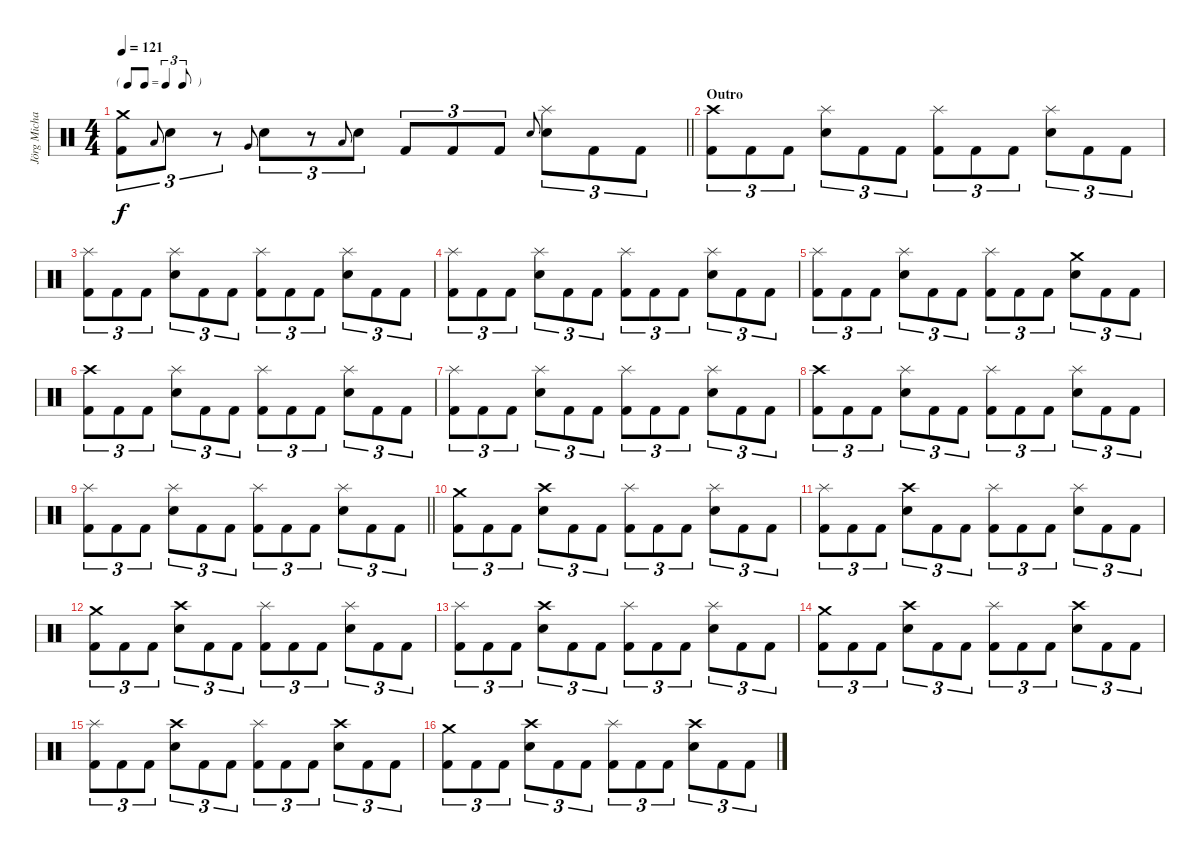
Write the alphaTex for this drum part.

\track ("Jörg Michael" "Jörg Micha") {instrument percussion}
\staff {score}
\articulation defaults
\ts (4 4)
\tf triplet8th
\tempo 121
\clef neutral
\barLineRight lightlight
\ks c
("Crash medium (hit)" "Kick (hit) 2").8{tu (3 2) dy f} "Low Tom (hit)".8{gr onbeat} "Snare (hit) 2".8{tu (3 2)} r.8{tu (3 2)} "Very Low Tom (hit)".8{gr onbeat} "Snare (hit) 2".8{tu (3 2)} r.8{tu (3 2)} "Low Floor Tom (hit)".8{gr onbeat} "Snare (hit) 2".8{tu (3 2)} "Kick (hit) 2".8{tu (3 2)} "Kick (hit) 2".8{tu (3 2)} "Kick (hit) 2".8{tu (3 2)} "Snare (hit) 2".8{gr onbeat} ("Splash (hit)" "Snare (hit) 2").8{tu (3 2)} "Kick (hit) 2".8{tu (3 2)} "Kick (hit) 2".8{tu (3 2)} |
\section ("" "Outro")
("Crash high (hit)" "Kick (hit) 2").8{tu (3 2)} "Kick (hit) 2".8{tu (3 2)} "Kick (hit) 2".8{tu (3 2)} ("Splash (hit)" "Snare (hit) 2").8{tu (3 2)} "Kick (hit) 2".8{tu (3 2)} "Kick (hit) 2".8{tu (3 2)} ("Splash (hit)" "Kick (hit) 2").8{tu (3 2)} "Kick (hit) 2".8{tu (3 2)} "Kick (hit) 2".8{tu (3 2)} ("Splash (hit)" "Snare (hit) 2").8{tu (3 2)} "Kick (hit) 2".8{tu (3 2)} "Kick (hit) 2".8{tu (3 2)} |
("Splash (hit)" "Kick (hit) 2").8{tu (3 2)} "Kick (hit) 2".8{tu (3 2)} "Kick (hit) 2".8{tu (3 2)} ("Splash (hit)" "Snare (hit) 2").8{tu (3 2)} "Kick (hit) 2".8{tu (3 2)} "Kick (hit) 2".8{tu (3 2)} ("Splash (hit)" "Kick (hit) 2").8{tu (3 2)} "Kick (hit) 2".8{tu (3 2)} "Kick (hit) 2".8{tu (3 2)} ("Splash (hit)" "Snare (hit) 2").8{tu (3 2)} "Kick (hit) 2".8{tu (3 2)} "Kick (hit) 2".8{tu (3 2)} |
("Splash (hit)" "Kick (hit) 2").8{tu (3 2)} "Kick (hit) 2".8{tu (3 2)} "Kick (hit) 2".8{tu (3 2)} ("Splash (hit)" "Snare (hit) 2").8{tu (3 2)} "Kick (hit) 2".8{tu (3 2)} "Kick (hit) 2".8{tu (3 2)} ("Splash (hit)" "Kick (hit) 2").8{tu (3 2)} "Kick (hit) 2".8{tu (3 2)} "Kick (hit) 2".8{tu (3 2)} ("Splash (hit)" "Snare (hit) 2").8{tu (3 2)} "Kick (hit) 2".8{tu (3 2)} "Kick (hit) 2".8{tu (3 2)} |
("Splash (hit)" "Kick (hit) 2").8{tu (3 2)} "Kick (hit) 2".8{tu (3 2)} "Kick (hit) 2".8{tu (3 2)} ("Splash (hit)" "Snare (hit) 2").8{tu (3 2)} "Kick (hit) 2".8{tu (3 2)} "Kick (hit) 2".8{tu (3 2)} ("Splash (hit)" "Kick (hit) 2").8{tu (3 2)} "Kick (hit) 2".8{tu (3 2)} "Kick (hit) 2".8{tu (3 2)} ("Crash medium (hit)" "Snare (hit) 2").8{tu (3 2)} "Kick (hit) 2".8{tu (3 2)} "Kick (hit) 2".8{tu (3 2)} |
("Crash high (hit)" "Kick (hit) 2").8{tu (3 2)} "Kick (hit) 2".8{tu (3 2)} "Kick (hit) 2".8{tu (3 2)} ("Splash (hit)" "Snare (hit) 2").8{tu (3 2)} "Kick (hit) 2".8{tu (3 2)} "Kick (hit) 2".8{tu (3 2)} ("Splash (hit)" "Kick (hit) 2").8{tu (3 2)} "Kick (hit) 2".8{tu (3 2)} "Kick (hit) 2".8{tu (3 2)} ("Splash (hit)" "Snare (hit) 2").8{tu (3 2)} "Kick (hit) 2".8{tu (3 2)} "Kick (hit) 2".8{tu (3 2)} |
("Splash (hit)" "Kick (hit) 2").8{tu (3 2)} "Kick (hit) 2".8{tu (3 2)} "Kick (hit) 2".8{tu (3 2)} ("Splash (hit)" "Snare (hit) 2").8{tu (3 2)} "Kick (hit) 2".8{tu (3 2)} "Kick (hit) 2".8{tu (3 2)} ("Splash (hit)" "Kick (hit) 2").8{tu (3 2)} "Kick (hit) 2".8{tu (3 2)} "Kick (hit) 2".8{tu (3 2)} ("Splash (hit)" "Snare (hit) 2").8{tu (3 2)} "Kick (hit) 2".8{tu (3 2)} "Kick (hit) 2".8{tu (3 2)} |
("Crash high (hit)" "Kick (hit) 2").8{tu (3 2)} "Kick (hit) 2".8{tu (3 2)} "Kick (hit) 2".8{tu (3 2)} ("Splash (hit)" "Snare (hit) 2").8{tu (3 2)} "Kick (hit) 2".8{tu (3 2)} "Kick (hit) 2".8{tu (3 2)} ("Splash (hit)" "Kick (hit) 2").8{tu (3 2)} "Kick (hit) 2".8{tu (3 2)} "Kick (hit) 2".8{tu (3 2)} ("Splash (hit)" "Snare (hit) 2").8{tu (3 2)} "Kick (hit) 2".8{tu (3 2)} "Kick (hit) 2".8{tu (3 2)} |
\barLineRight lightlight
("Splash (hit)" "Kick (hit) 2").8{tu (3 2)} "Kick (hit) 2".8{tu (3 2)} "Kick (hit) 2".8{tu (3 2)} ("Splash (hit)" "Snare (hit) 2").8{tu (3 2)} "Kick (hit) 2".8{tu (3 2)} "Kick (hit) 2".8{tu (3 2)} ("Splash (hit)" "Kick (hit) 2").8{tu (3 2)} "Kick (hit) 2".8{tu (3 2)} "Kick (hit) 2".8{tu (3 2)} ("Splash (hit)" "Snare (hit) 2").8{tu (3 2)} "Kick (hit) 2".8{tu (3 2)} "Kick (hit) 2".8{tu (3 2)} |
("Crash medium (hit)" "Kick (hit) 2").8{tu (3 2)} "Kick (hit) 2".8{tu (3 2)} "Kick (hit) 2".8{tu (3 2)} ("Crash high (hit)" "Snare (hit) 2").8{tu (3 2)} "Kick (hit) 2".8{tu (3 2)} "Kick (hit) 2".8{tu (3 2)} ("Splash (hit)" "Kick (hit) 2").8{tu (3 2)} "Kick (hit) 2".8{tu (3 2)} "Kick (hit) 2".8{tu (3 2)} ("Splash (hit)" "Snare (hit) 2").8{tu (3 2)} "Kick (hit) 2".8{tu (3 2)} "Kick (hit) 2".8{tu (3 2)} |
("Splash (hit)" "Kick (hit) 2").8{tu (3 2)} "Kick (hit) 2".8{tu (3 2)} "Kick (hit) 2".8{tu (3 2)} ("Crash high (hit)" "Snare (hit) 2").8{tu (3 2)} "Kick (hit) 2".8{tu (3 2)} "Kick (hit) 2".8{tu (3 2)} ("Splash (hit)" "Kick (hit) 2").8{tu (3 2)} "Kick (hit) 2".8{tu (3 2)} "Kick (hit) 2".8{tu (3 2)} ("Splash (hit)" "Snare (hit) 2").8{tu (3 2)} "Kick (hit) 2".8{tu (3 2)} "Kick (hit) 2".8{tu (3 2)} |
("Crash medium (hit)" "Kick (hit) 2").8{tu (3 2)} "Kick (hit) 2".8{tu (3 2)} "Kick (hit) 2".8{tu (3 2)} ("Crash high (hit)" "Snare (hit) 2").8{tu (3 2)} "Kick (hit) 2".8{tu (3 2)} "Kick (hit) 2".8{tu (3 2)} ("Splash (hit)" "Kick (hit) 2").8{tu (3 2)} "Kick (hit) 2".8{tu (3 2)} "Kick (hit) 2".8{tu (3 2)} ("Splash (hit)" "Snare (hit) 2").8{tu (3 2)} "Kick (hit) 2".8{tu (3 2)} "Kick (hit) 2".8{tu (3 2)} |
("Splash (hit)" "Kick (hit) 2").8{tu (3 2)} "Kick (hit) 2".8{tu (3 2)} "Kick (hit) 2".8{tu (3 2)} ("Crash high (hit)" "Snare (hit) 2").8{tu (3 2)} "Kick (hit) 2".8{tu (3 2)} "Kick (hit) 2".8{tu (3 2)} ("Splash (hit)" "Kick (hit) 2").8{tu (3 2)} "Kick (hit) 2".8{tu (3 2)} "Kick (hit) 2".8{tu (3 2)} ("Splash (hit)" "Snare (hit) 2").8{tu (3 2)} "Kick (hit) 2".8{tu (3 2)} "Kick (hit) 2".8{tu (3 2)} |
("Crash medium (hit)" "Kick (hit) 2").8{tu (3 2)} "Kick (hit) 2".8{tu (3 2)} "Kick (hit) 2".8{tu (3 2)} ("Crash high (hit)" "Snare (hit) 2").8{tu (3 2)} "Kick (hit) 2".8{tu (3 2)} "Kick (hit) 2".8{tu (3 2)} ("Splash (hit)" "Kick (hit) 2").8{tu (3 2)} "Kick (hit) 2".8{tu (3 2)} "Kick (hit) 2".8{tu (3 2)} ("Crash high (hit)" "Snare (hit) 2").8{tu (3 2)} "Kick (hit) 2".8{tu (3 2)} "Kick (hit) 2".8{tu (3 2)} |
("Splash (hit)" "Kick (hit) 2").8{tu (3 2)} "Kick (hit) 2".8{tu (3 2)} "Kick (hit) 2".8{tu (3 2)} ("Crash high (hit)" "Snare (hit) 2").8{tu (3 2)} "Kick (hit) 2".8{tu (3 2)} "Kick (hit) 2".8{tu (3 2)} ("Splash (hit)" "Kick (hit) 2").8{tu (3 2)} "Kick (hit) 2".8{tu (3 2)} "Kick (hit) 2".8{tu (3 2)} ("Crash high (hit)" "Snare (hit) 2").8{tu (3 2)} "Kick (hit) 2".8{tu (3 2)} "Kick (hit) 2".8{tu (3 2)} |
("Crash medium (hit)" "Kick (hit) 2").8{tu (3 2)} "Kick (hit) 2".8{tu (3 2)} "Kick (hit) 2".8{tu (3 2)} ("Crash high (hit)" "Snare (hit) 2").8{tu (3 2)} "Kick (hit) 2".8{tu (3 2)} "Kick (hit) 2".8{tu (3 2)} ("Splash (hit)" "Kick (hit) 2").8{tu (3 2)} "Kick (hit) 2".8{tu (3 2)} "Kick (hit) 2".8{tu (3 2)} ("Crash high (hit)" "Snare (hit) 2").8{tu (3 2)} "Kick (hit) 2".8{tu (3 2)} "Kick (hit) 2".8{tu (3 2)}
